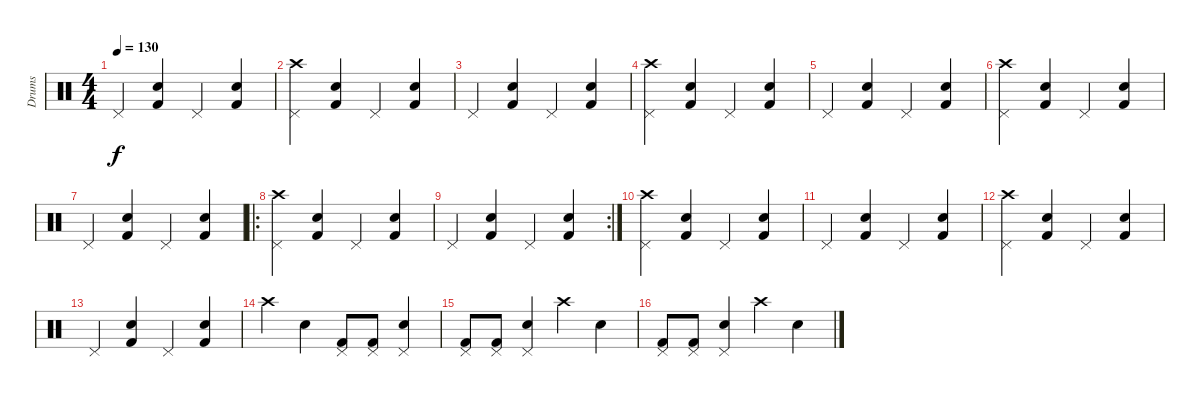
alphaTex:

\track ("Drums" "Drums") {instrument percussion}
\staff {score}
\articulation defaults
\ts (4 4)
\tempo 130
\clef neutral
\ks c "Pedal Hi-Hat (hit)".4{dy f}
("Snare (hit) 2" "Kick (hit) 2").4 "Pedal Hi-Hat (hit)".4 ("Snare (hit) 2" "Kick (hit) 2").4 |
("Crash high (hit)" "Pedal Hi-Hat (hit)").4 ("Snare (hit) 2" "Kick (hit) 2").4 "Pedal Hi-Hat (hit)".4 ("Snare (hit) 2" "Kick (hit) 2").4 |
"Pedal Hi-Hat (hit)".4 ("Snare (hit) 2" "Kick (hit) 2").4 "Pedal Hi-Hat (hit)".4 ("Snare (hit) 2" "Kick (hit) 2").4 |
("Crash high (hit)" "Pedal Hi-Hat (hit)").4 ("Snare (hit) 2" "Kick (hit) 2").4 "Pedal Hi-Hat (hit)".4 ("Snare (hit) 2" "Kick (hit) 2").4 |
"Pedal Hi-Hat (hit)".4 ("Snare (hit) 2" "Kick (hit) 2").4 "Pedal Hi-Hat (hit)".4 ("Snare (hit) 2" "Kick (hit) 2").4 |
("Crash high (hit)" "Pedal Hi-Hat (hit)").4 ("Snare (hit) 2" "Kick (hit) 2").4 "Pedal Hi-Hat (hit)".4 ("Snare (hit) 2" "Kick (hit) 2").4 |
"Pedal Hi-Hat (hit)".4 ("Snare (hit) 2" "Kick (hit) 2").4 "Pedal Hi-Hat (hit)".4 ("Snare (hit) 2" "Kick (hit) 2").4 |
\ro
("Crash high (hit)" "Pedal Hi-Hat (hit)").4 ("Snare (hit) 2" "Kick (hit) 2").4 "Pedal Hi-Hat (hit)".4 ("Snare (hit) 2" "Kick (hit) 2").4 |
\rc 2 "Pedal Hi-Hat (hit)".4
("Snare (hit) 2" "Kick (hit) 2").4 "Pedal Hi-Hat (hit)".4 ("Snare (hit) 2" "Kick (hit) 2").4 |
("Crash high (hit)" "Pedal Hi-Hat (hit)").4 ("Snare (hit) 2" "Kick (hit) 2").4 "Pedal Hi-Hat (hit)".4 ("Snare (hit) 2" "Kick (hit) 2").4 |
"Pedal Hi-Hat (hit)".4 ("Snare (hit) 2" "Kick (hit) 2").4 "Pedal Hi-Hat (hit)".4 ("Snare (hit) 2" "Kick (hit) 2").4 |
("Crash high (hit)" "Pedal Hi-Hat (hit)").4 ("Snare (hit) 2" "Kick (hit) 2").4 "Pedal Hi-Hat (hit)".4 ("Snare (hit) 2" "Kick (hit) 2").4 |
"Pedal Hi-Hat (hit)".4 ("Snare (hit) 2" "Kick (hit) 2").4 "Pedal Hi-Hat (hit)".4 ("Snare (hit) 2" "Kick (hit) 2").4 |
"Crash high (hit)".4 "Snare (hit) 2".4 ("Pedal Hi-Hat (hit)" "Kick (hit) 2").8 ("Pedal Hi-Hat (hit)" "Kick (hit) 2").8 ("Pedal Hi-Hat (hit)" "Snare (hit) 2").4 |
("Pedal Hi-Hat (hit)" "Kick (hit) 2").8 ("Pedal Hi-Hat (hit)" "Kick (hit) 2").8 ("Pedal Hi-Hat (hit)" "Snare (hit) 2").4 "Crash high (hit)".4 "Snare (hit) 2".4 |
("Pedal Hi-Hat (hit)" "Kick (hit) 2").8 ("Pedal Hi-Hat (hit)" "Kick (hit) 2").8 ("Pedal Hi-Hat (hit)" "Snare (hit) 2").4 "Crash high (hit)".4 "Snare (hit) 2".4
